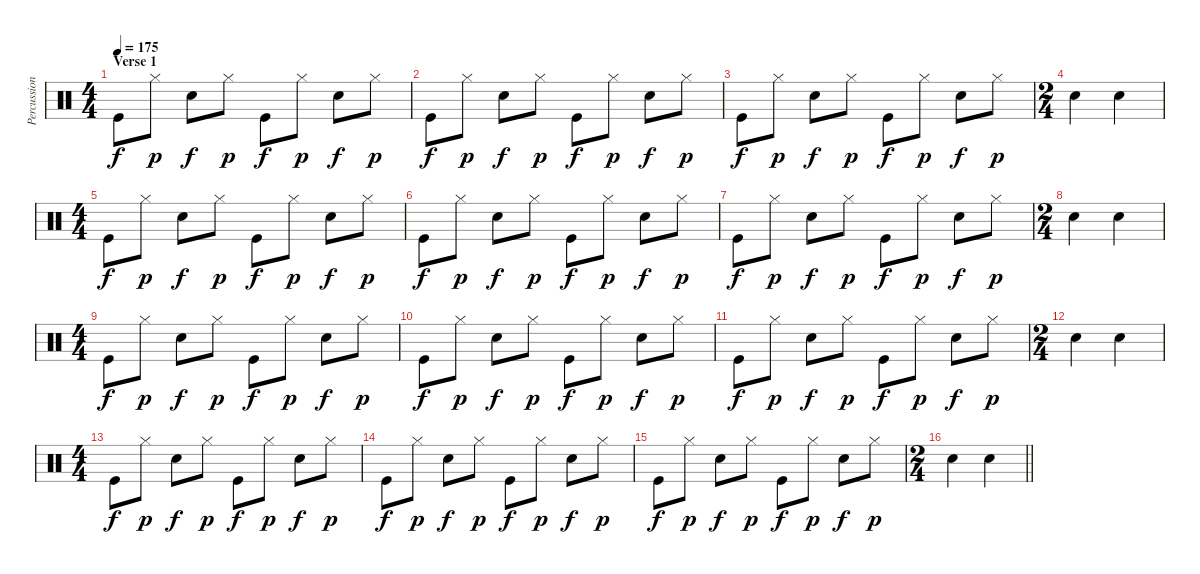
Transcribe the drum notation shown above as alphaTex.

\track ("Percussion" "Percussion") {instrument percussion}
\staff {score}
\articulation defaults
\ts (4 4)
\section ("" "Verse 1")
\tempo 175
\clef neutral
\ks c "Kick (hit)".8{dy f} "Hi-Hat (closed)".8{dy p} "Snare (hit) 2".8{dy f} "Hi-Hat (closed)".8{dy p} "Kick (hit)".8{dy f} "Hi-Hat (closed)".8{dy p} "Snare (hit) 2".8{dy f} "Hi-Hat (closed)".8{dy p}
|
"Kick (hit)".8{dy f} "Hi-Hat (closed)".8{dy p} "Snare (hit) 2".8{dy f} "Hi-Hat (closed)".8{dy p} "Kick (hit)".8{dy f} "Hi-Hat (closed)".8{dy p} "Snare (hit) 2".8{dy f} "Hi-Hat (closed)".8{dy p} |
"Kick (hit)".8{dy f} "Hi-Hat (closed)".8{dy p} "Snare (hit) 2".8{dy f} "Hi-Hat (closed)".8{dy p} "Kick (hit)".8{dy f} "Hi-Hat (closed)".8{dy p} "Snare (hit) 2".8{dy f} "Hi-Hat (closed)".8{dy p} |
\ts (2 4)
"Snare (hit) 2".4 "Snare (hit) 2".4 |
\ts (4 4)
"Kick (hit)".8{dy f} "Hi-Hat (closed)".8{dy p} "Snare (hit) 2".8{dy f} "Hi-Hat (closed)".8{dy p} "Kick (hit)".8{dy f} "Hi-Hat (closed)".8{dy p} "Snare (hit) 2".8{dy f} "Hi-Hat (closed)".8{dy p} |
"Kick (hit)".8{dy f} "Hi-Hat (closed)".8{dy p} "Snare (hit) 2".8{dy f} "Hi-Hat (closed)".8{dy p} "Kick (hit)".8{dy f} "Hi-Hat (closed)".8{dy p} "Snare (hit) 2".8{dy f} "Hi-Hat (closed)".8{dy p} |
"Kick (hit)".8{dy f} "Hi-Hat (closed)".8{dy p} "Snare (hit) 2".8{dy f} "Hi-Hat (closed)".8{dy p} "Kick (hit)".8{dy f} "Hi-Hat (closed)".8{dy p} "Snare (hit) 2".8{dy f} "Hi-Hat (closed)".8{dy p} |
\ts (2 4)
"Snare (hit) 2".4 "Snare (hit) 2".4 |
\ts (4 4)
"Kick (hit)".8{dy f} "Hi-Hat (closed)".8{dy p} "Snare (hit) 2".8{dy f} "Hi-Hat (closed)".8{dy p} "Kick (hit)".8{dy f} "Hi-Hat (closed)".8{dy p} "Snare (hit) 2".8{dy f} "Hi-Hat (closed)".8{dy p} |
"Kick (hit)".8{dy f} "Hi-Hat (closed)".8{dy p} "Snare (hit) 2".8{dy f} "Hi-Hat (closed)".8{dy p} "Kick (hit)".8{dy f} "Hi-Hat (closed)".8{dy p} "Snare (hit) 2".8{dy f} "Hi-Hat (closed)".8{dy p} |
"Kick (hit)".8{dy f} "Hi-Hat (closed)".8{dy p} "Snare (hit) 2".8{dy f} "Hi-Hat (closed)".8{dy p} "Kick (hit)".8{dy f} "Hi-Hat (closed)".8{dy p} "Snare (hit) 2".8{dy f} "Hi-Hat (closed)".8{dy p} |
\ts (2 4)
"Snare (hit) 2".4 "Snare (hit) 2".4 |
\ts (4 4)
"Kick (hit)".8{dy f} "Hi-Hat (closed)".8{dy p} "Snare (hit) 2".8{dy f} "Hi-Hat (closed)".8{dy p} "Kick (hit)".8{dy f} "Hi-Hat (closed)".8{dy p} "Snare (hit) 2".8{dy f} "Hi-Hat (closed)".8{dy p} |
"Kick (hit)".8{dy f} "Hi-Hat (closed)".8{dy p} "Snare (hit) 2".8{dy f} "Hi-Hat (closed)".8{dy p} "Kick (hit)".8{dy f} "Hi-Hat (closed)".8{dy p} "Snare (hit) 2".8{dy f} "Hi-Hat (closed)".8{dy p} |
"Kick (hit)".8{dy f} "Hi-Hat (closed)".8{dy p} "Snare (hit) 2".8{dy f} "Hi-Hat (closed)".8{dy p} "Kick (hit)".8{dy f} "Hi-Hat (closed)".8{dy p} "Snare (hit) 2".8{dy f} "Hi-Hat (closed)".8{dy p} |
\ts (2 4)
\barLineRight lightlight "Snare (hit) 2".4 "Snare (hit) 2".4
